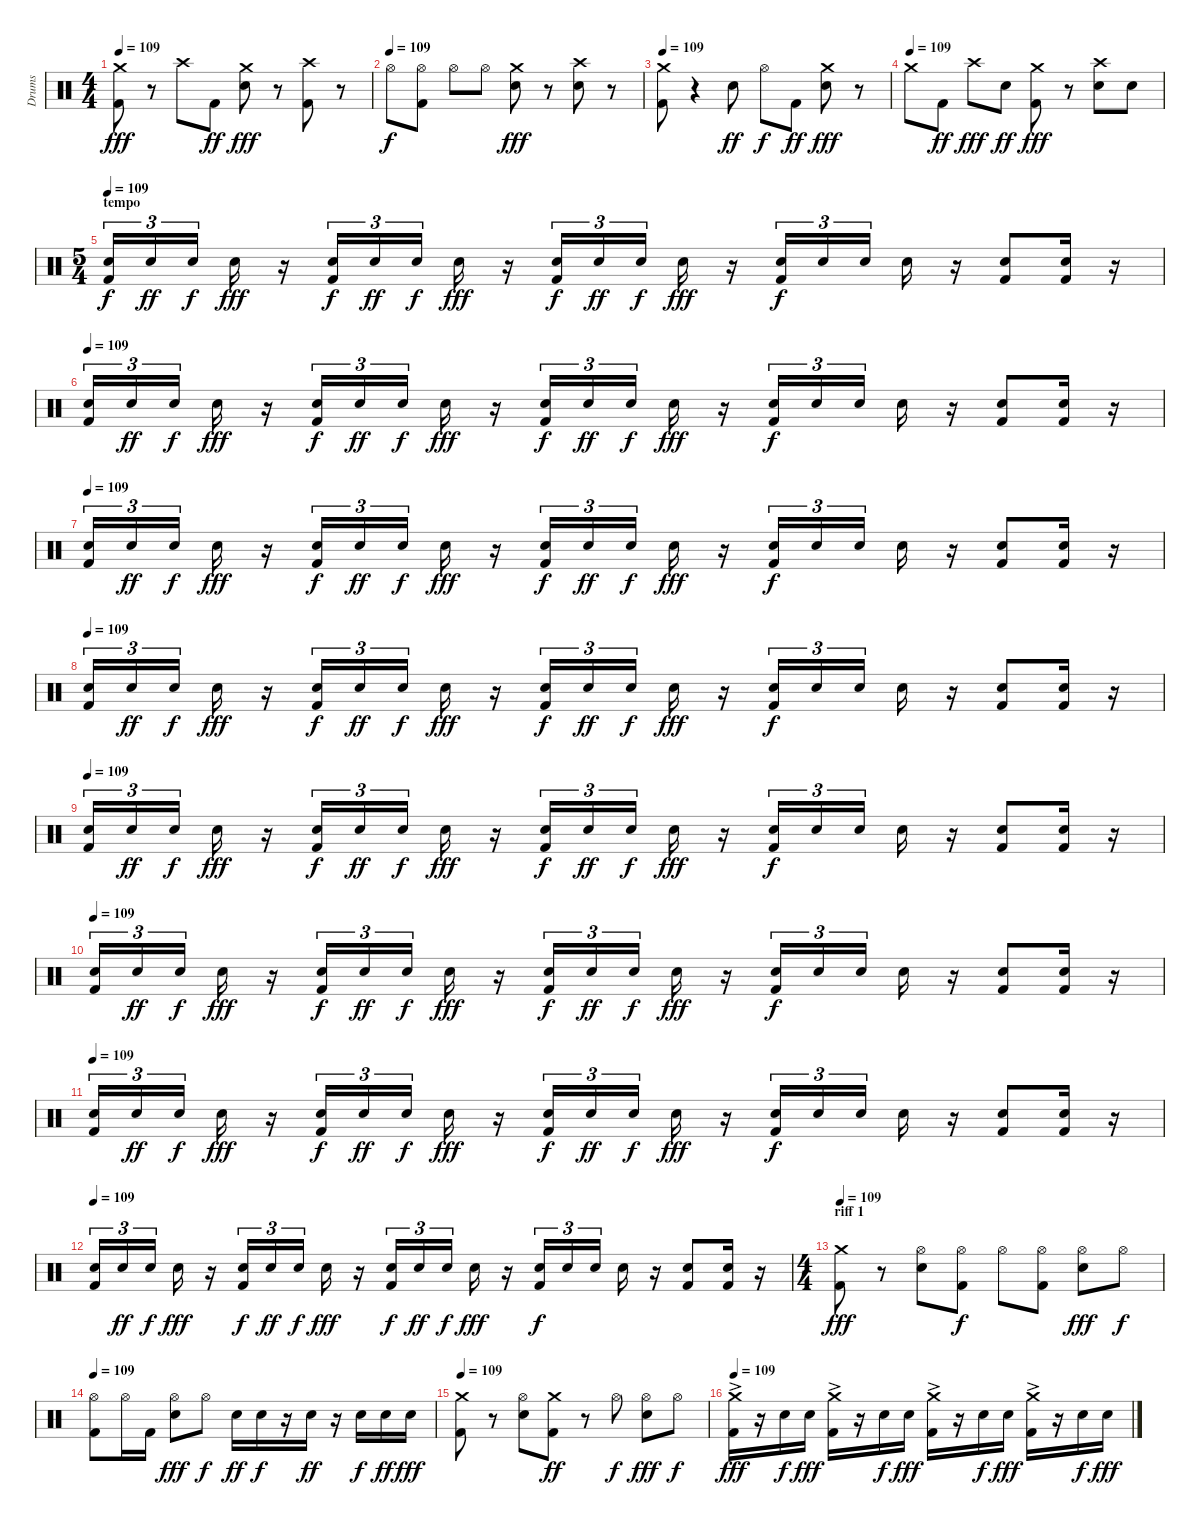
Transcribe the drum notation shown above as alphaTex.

\track ("Drums" "Drums") {instrument percussion}
\staff {score}
\articulation defaults
\ts (4 4)
\tempo 109
\clef neutral
\ks c
("Kick (hit) 2" "Crash medium (hit)").8{dy fff} r.8 "Crash high (hit)".8 "Kick (hit) 2".8{dy ff} ("Snare (hit) 2" "Crash medium (hit)").8{dy fff} r.8 ("Kick (hit) 2" "Crash high (hit)").8 r.8 |
\tempo (109)
"Hi-Hat (open)".8{dy f} ("Kick (hit) 2" "Hi-Hat (open)").8 "Hi-Hat (open)".8 "Hi-Hat (open)".8 ("Snare (hit) 2" "Crash medium (hit)").8{dy fff} r.8 ("Snare (hit) 2" "Crash high (hit)").8 r.8 |
\tempo 109
("Kick (hit) 2" "Crash medium (hit)").8 r.4 "Snare (hit) 2".8{dy ff} "Hi-Hat (open)".8{dy f} "Kick (hit) 2".8{dy ff} ("Snare (hit) 2" "Crash medium (hit)").8{dy fff} r.8 |
\tempo (109)
"Crash medium (hit)".8 "Kick (hit) 2".8{dy ff} "Crash high (hit)".8{dy fff} "Snare (hit) 2".8{dy ff} ("Kick (hit) 2" "Crash medium (hit)").8{dy fff} r.8 ("Snare (hit) 2" "Crash high (hit)").8 "Snare (hit) 2".8 |
\ts (5 4)
\section ("" "tempo")
\tempo 109
("Snare (hit) 2" "Kick (hit) 2").16{tu (3 2) dy f} "Snare (hit) 2".16{tu (3 2) dy ff} "Snare (hit) 2".16{tu (3 2) dy f} "Snare (hit) 2".16{dy fff} r.16 ("Snare (hit) 2" "Kick (hit) 2").16{tu (3 2) dy f} "Snare (hit) 2".16{tu (3 2) dy ff} "Snare (hit) 2".16{tu (3 2) dy f} "Snare (hit) 2".16{dy fff} r.16 ("Snare (hit) 2" "Kick (hit) 2").16{tu (3 2) dy f} "Snare (hit) 2".16{tu (3 2) dy ff} "Snare (hit) 2".16{tu (3 2) dy f} "Snare (hit) 2".16{dy fff} r.16 ("Snare (hit) 2" "Kick (hit) 2").16{tu (3 2) dy f} "Snare (hit) 2".16{tu (3 2)} "Snare (hit) 2".16{tu (3 2)} "Snare (hit) 2".16 r.16 ("Snare (hit) 2" "Kick (hit) 2").8 ("Snare (hit) 2" "Kick (hit) 2").16 r.16 |
\tempo 109
("Snare (hit) 2" "Kick (hit) 2").16{tu (3 2)} "Snare (hit) 2".16{tu (3 2) dy ff} "Snare (hit) 2".16{tu (3 2) dy f} "Snare (hit) 2".16{dy fff} r.16 ("Snare (hit) 2" "Kick (hit) 2").16{tu (3 2) dy f} "Snare (hit) 2".16{tu (3 2) dy ff} "Snare (hit) 2".16{tu (3 2) dy f} "Snare (hit) 2".16{dy fff} r.16 ("Snare (hit) 2" "Kick (hit) 2").16{tu (3 2) dy f} "Snare (hit) 2".16{tu (3 2) dy ff} "Snare (hit) 2".16{tu (3 2) dy f} "Snare (hit) 2".16{dy fff} r.16 ("Snare (hit) 2" "Kick (hit) 2").16{tu (3 2) dy f} "Snare (hit) 2".16{tu (3 2)} "Snare (hit) 2".16{tu (3 2)} "Snare (hit) 2".16 r.16 ("Snare (hit) 2" "Kick (hit) 2").8 ("Snare (hit) 2" "Kick (hit) 2").16 r.16 |
\tempo 109
("Snare (hit) 2" "Kick (hit) 2").16{tu (3 2)} "Snare (hit) 2".16{tu (3 2) dy ff} "Snare (hit) 2".16{tu (3 2) dy f} "Snare (hit) 2".16{dy fff} r.16 ("Snare (hit) 2" "Kick (hit) 2").16{tu (3 2) dy f} "Snare (hit) 2".16{tu (3 2) dy ff} "Snare (hit) 2".16{tu (3 2) dy f} "Snare (hit) 2".16{dy fff} r.16 ("Snare (hit) 2" "Kick (hit) 2").16{tu (3 2) dy f} "Snare (hit) 2".16{tu (3 2) dy ff} "Snare (hit) 2".16{tu (3 2) dy f} "Snare (hit) 2".16{dy fff} r.16 ("Snare (hit) 2" "Kick (hit) 2").16{tu (3 2) dy f} "Snare (hit) 2".16{tu (3 2)} "Snare (hit) 2".16{tu (3 2)} "Snare (hit) 2".16 r.16 ("Snare (hit) 2" "Kick (hit) 2").8 ("Snare (hit) 2" "Kick (hit) 2").16 r.16 |
\tempo 109
("Snare (hit) 2" "Kick (hit) 2").16{tu (3 2)} "Snare (hit) 2".16{tu (3 2) dy ff} "Snare (hit) 2".16{tu (3 2) dy f} "Snare (hit) 2".16{dy fff} r.16 ("Snare (hit) 2" "Kick (hit) 2").16{tu (3 2) dy f} "Snare (hit) 2".16{tu (3 2) dy ff} "Snare (hit) 2".16{tu (3 2) dy f} "Snare (hit) 2".16{dy fff} r.16 ("Snare (hit) 2" "Kick (hit) 2").16{tu (3 2) dy f} "Snare (hit) 2".16{tu (3 2) dy ff} "Snare (hit) 2".16{tu (3 2) dy f} "Snare (hit) 2".16{dy fff} r.16 ("Snare (hit) 2" "Kick (hit) 2").16{tu (3 2) dy f} "Snare (hit) 2".16{tu (3 2)} "Snare (hit) 2".16{tu (3 2)} "Snare (hit) 2".16 r.16 ("Snare (hit) 2" "Kick (hit) 2").8 ("Snare (hit) 2" "Kick (hit) 2").16 r.16 |
\tempo 109
("Snare (hit) 2" "Kick (hit) 2").16{tu (3 2)} "Snare (hit) 2".16{tu (3 2) dy ff} "Snare (hit) 2".16{tu (3 2) dy f} "Snare (hit) 2".16{dy fff} r.16 ("Snare (hit) 2" "Kick (hit) 2").16{tu (3 2) dy f} "Snare (hit) 2".16{tu (3 2) dy ff} "Snare (hit) 2".16{tu (3 2) dy f} "Snare (hit) 2".16{dy fff} r.16 ("Snare (hit) 2" "Kick (hit) 2").16{tu (3 2) dy f} "Snare (hit) 2".16{tu (3 2) dy ff} "Snare (hit) 2".16{tu (3 2) dy f} "Snare (hit) 2".16{dy fff} r.16 ("Snare (hit) 2" "Kick (hit) 2").16{tu (3 2) dy f} "Snare (hit) 2".16{tu (3 2)} "Snare (hit) 2".16{tu (3 2)} "Snare (hit) 2".16 r.16 ("Snare (hit) 2" "Kick (hit) 2").8 ("Snare (hit) 2" "Kick (hit) 2").16 r.16 |
\tempo 109
("Snare (hit) 2" "Kick (hit) 2").16{tu (3 2)} "Snare (hit) 2".16{tu (3 2) dy ff} "Snare (hit) 2".16{tu (3 2) dy f} "Snare (hit) 2".16{dy fff} r.16 ("Snare (hit) 2" "Kick (hit) 2").16{tu (3 2) dy f} "Snare (hit) 2".16{tu (3 2) dy ff} "Snare (hit) 2".16{tu (3 2) dy f} "Snare (hit) 2".16{dy fff} r.16 ("Snare (hit) 2" "Kick (hit) 2").16{tu (3 2) dy f} "Snare (hit) 2".16{tu (3 2) dy ff} "Snare (hit) 2".16{tu (3 2) dy f} "Snare (hit) 2".16{dy fff} r.16 ("Snare (hit) 2" "Kick (hit) 2").16{tu (3 2) dy f} "Snare (hit) 2".16{tu (3 2)} "Snare (hit) 2".16{tu (3 2)} "Snare (hit) 2".16 r.16 ("Snare (hit) 2" "Kick (hit) 2").8 ("Snare (hit) 2" "Kick (hit) 2").16 r.16 |
\tempo 109
("Snare (hit) 2" "Kick (hit) 2").16{tu (3 2)} "Snare (hit) 2".16{tu (3 2) dy ff} "Snare (hit) 2".16{tu (3 2) dy f} "Snare (hit) 2".16{dy fff} r.16 ("Snare (hit) 2" "Kick (hit) 2").16{tu (3 2) dy f} "Snare (hit) 2".16{tu (3 2) dy ff} "Snare (hit) 2".16{tu (3 2) dy f} "Snare (hit) 2".16{dy fff} r.16 ("Snare (hit) 2" "Kick (hit) 2").16{tu (3 2) dy f} "Snare (hit) 2".16{tu (3 2) dy ff} "Snare (hit) 2".16{tu (3 2) dy f} "Snare (hit) 2".16{dy fff} r.16 ("Snare (hit) 2" "Kick (hit) 2").16{tu (3 2) dy f} "Snare (hit) 2".16{tu (3 2)} "Snare (hit) 2".16{tu (3 2)} "Snare (hit) 2".16 r.16 ("Snare (hit) 2" "Kick (hit) 2").8 ("Snare (hit) 2" "Kick (hit) 2").16 r.16 |
\tempo 109
("Snare (hit) 2" "Kick (hit) 2").16{tu (3 2)} "Snare (hit) 2".16{tu (3 2) dy ff} "Snare (hit) 2".16{tu (3 2) dy f} "Snare (hit) 2".16{dy fff} r.16 ("Snare (hit) 2" "Kick (hit) 2").16{tu (3 2) dy f} "Snare (hit) 2".16{tu (3 2) dy ff} "Snare (hit) 2".16{tu (3 2) dy f} "Snare (hit) 2".16{dy fff} r.16 ("Snare (hit) 2" "Kick (hit) 2").16{tu (3 2) dy f} "Snare (hit) 2".16{tu (3 2) dy ff} "Snare (hit) 2".16{tu (3 2) dy f} "Snare (hit) 2".16{dy fff} r.16 ("Snare (hit) 2" "Kick (hit) 2").16{tu (3 2) dy f} "Snare (hit) 2".16{tu (3 2)} "Snare (hit) 2".16{tu (3 2)} "Snare (hit) 2".16 r.16 ("Snare (hit) 2" "Kick (hit) 2").8 ("Snare (hit) 2" "Kick (hit) 2").16 r.16 |
\ts (4 4)
\section ("" "riff 1")
\tempo 109
("Kick (hit) 2" "Crash medium (hit)").8{dy fff} r.8 ("Snare (hit) 2" "Hi-Hat (open)").8 ("Kick (hit) 2" "Hi-Hat (open)").8{dy f} "Hi-Hat (open)".8 ("Kick (hit) 2" "Hi-Hat (open)").8 ("Snare (hit) 2" "Hi-Hat (open)").8{dy fff} "Hi-Hat (open)".8{dy f} |
\tempo 109
("Kick (hit) 2" "Hi-Hat (open)").8 "Hi-Hat (open)".16 "Kick (hit) 2".16 ("Snare (hit) 2" "Hi-Hat (open)").8{dy fff} "Hi-Hat (open)".8{dy f} "Snare (hit) 2".16{dy ff} "Snare (hit) 2".16{dy f} r.16 "Snare (hit) 2".16{dy ff} r.16 "Snare (hit) 2".16{dy f} "Snare (hit) 2".16{dy ff} "Snare (hit) 2".16{dy fff} |
\tempo 109
("Kick (hit) 2" "Crash medium (hit)").8 r.8 ("Snare (hit) 2" "Hi-Hat (open)").8 ("Crash medium (hit)" "Kick (hit) 2").8{dy ff} r.8 "Hi-Hat (open)".8{dy f} ("Snare (hit) 2" "Hi-Hat (open)").8{dy fff} "Hi-Hat (open)".8{dy f} |
\tempo 109
("Kick (hit) 2"{ac} "Crash medium (hit)"{ac}).16{dy fff} r.16 "Snare (hit) 2".16{dy f} "Snare (hit) 2".16{dy fff} ("Kick (hit) 2"{ac} "Crash medium (hit)"{ac}).16 r.16 "Snare (hit) 2".16{dy f} "Snare (hit) 2".16{dy fff} ("Kick (hit) 2"{ac} "Crash medium (hit)"{ac}).16 r.16 "Snare (hit) 2".16{dy f} "Snare (hit) 2".16{dy fff} ("Kick (hit) 2"{ac} "Crash medium (hit)"{ac}).16 r.16 "Snare (hit) 2".16{dy f} "Snare (hit) 2".16{dy fff}
